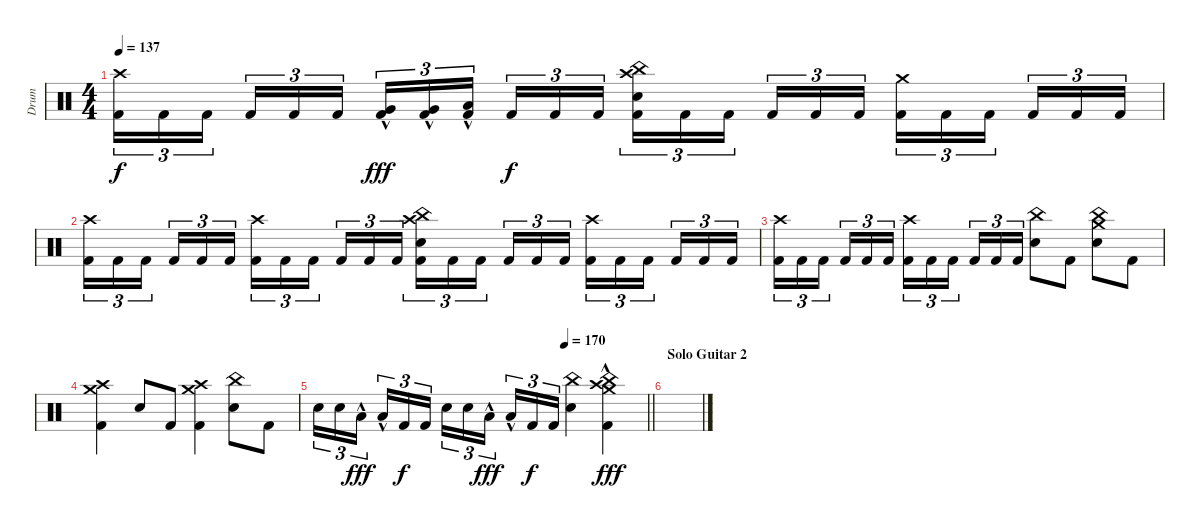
\track ("Drum" "Drum") {instrument percussion}
\staff {score}
\articulation defaults
\ts (4 4)
\tempo 137
\clef neutral
\ks c
("Crash high (hit)" "Kick (hit) 2").16{tu (3 2) dy f} "Kick (hit) 2".16{tu (3 2)} "Kick (hit) 2".16{tu (3 2) beam splitsecondary} "Kick (hit) 2".16{tu (3 2)} "Kick (hit) 2".16{tu (3 2)} "Kick (hit) 2".16{tu (3 2)} ("Very Low Tom (hit)"{hac} "Kick (hit) 2").16{tu (3 2) dy fff} ("Very Low Tom (hit)"{hac} "Kick (hit) 2").16{tu (3 2)} ("Low Floor Tom (hit)"{hac} "Kick (hit) 2").16{tu (3 2) beam splitsecondary} "Kick (hit) 2".16{tu (3 2) dy f} "Kick (hit) 2".16{tu (3 2)} "Kick (hit) 2".16{tu (3 2)} ("China (hit)" "Crash high (hit)" "Electric Snare (hit)" "Kick (hit) 2").16{tu (3 2)} "Kick (hit) 2".16{tu (3 2)} "Kick (hit) 2".16{tu (3 2) beam splitsecondary} "Kick (hit) 2".16{tu (3 2)} "Kick (hit) 2".16{tu (3 2)} "Kick (hit) 2".16{tu (3 2)} ("Crash medium (hit)" "Kick (hit) 2").16{tu (3 2)} "Kick (hit) 2".16{tu (3 2)} "Kick (hit) 2".16{tu (3 2) beam splitsecondary} "Kick (hit) 2".16{tu (3 2)} "Kick (hit) 2".16{tu (3 2)} "Kick (hit) 2".16{tu (3 2)} |
("Crash high (hit)" "Kick (hit) 2").16{tu (3 2)} "Kick (hit) 2".16{tu (3 2)} "Kick (hit) 2".16{tu (3 2) beam splitsecondary} "Kick (hit) 2".16{tu (3 2)} "Kick (hit) 2".16{tu (3 2)} "Kick (hit) 2".16{tu (3 2)} ("Crash high (hit)" "Kick (hit) 2").16{tu (3 2)} "Kick (hit) 2".16{tu (3 2)} "Kick (hit) 2".16{tu (3 2) beam splitsecondary} "Kick (hit) 2".16{tu (3 2)} "Kick (hit) 2".16{tu (3 2)} "Kick (hit) 2".16{tu (3 2)} ("China (hit)" "Crash high (hit)" "Electric Snare (hit)" "Kick (hit) 2").16{tu (3 2)} "Kick (hit) 2".16{tu (3 2)} "Kick (hit) 2".16{tu (3 2) beam splitsecondary} "Kick (hit) 2".16{tu (3 2)} "Kick (hit) 2".16{tu (3 2)} "Kick (hit) 2".16{tu (3 2)} ("Crash high (hit)" "Kick (hit) 2").16{tu (3 2)} "Kick (hit) 2".16{tu (3 2)} "Kick (hit) 2".16{tu (3 2) beam splitsecondary} "Kick (hit) 2".16{tu (3 2)} "Kick (hit) 2".16{tu (3 2)} "Kick (hit) 2".16{tu (3 2)} |
("Crash high (hit)" "Kick (hit) 2").16{tu (3 2)} "Kick (hit) 2".16{tu (3 2)} "Kick (hit) 2".16{tu (3 2) beam splitsecondary} "Kick (hit) 2".16{tu (3 2)} "Kick (hit) 2".16{tu (3 2)} "Kick (hit) 2".16{tu (3 2)} ("Crash high (hit)" "Kick (hit) 2").16{tu (3 2)} "Kick (hit) 2".16{tu (3 2)} "Kick (hit) 2".16{tu (3 2) beam splitsecondary} "Kick (hit) 2".16{tu (3 2)} "Kick (hit) 2".16{tu (3 2)} "Kick (hit) 2".16{tu (3 2)} ("China (hit)" "Electric Snare (hit)").8 "Kick (hit) 2".8 ("Crash medium (hit)" "China (hit)" "Electric Snare (hit)").8 "Kick (hit) 2".8 |
("Crash medium (hit)" "Crash high (hit)" "Kick (hit) 2").4 "Electric Snare (hit)".8 "Kick (hit) 2".8 ("Crash medium (hit)" "Crash high (hit)" "Kick (hit) 2").4 ("China (hit)" "Electric Snare (hit)").8 "Kick (hit) 2".8 |
\tempo (170 0.75)
\barLineRight lightlight "Electric Snare (hit)".16{tu (3 2)} "Electric Snare (hit)".16{tu (3 2)} "Low Tom (hit)"{hac}.16{tu (3 2) dy fff beam splitsecondary} "Low Tom (hit)"{hac}.16{tu (3 2)} "Kick (hit) 2".16{tu (3 2) dy f} "Kick (hit) 2".16{tu (3 2)} "Electric Snare (hit)".16{tu (3 2)} "Electric Snare (hit)".16{tu (3 2)} "Low Tom (hit)"{hac}.16{tu (3 2) dy fff beam splitsecondary} "Low Tom (hit)"{hac}.16{tu (3 2)} "Kick (hit) 2".16{tu (3 2) dy f} "Kick (hit) 2".16{tu (3 2)}
("China (hit)" "Electric Snare (hit)").4 ("China (hit)"{hac} "Crash high (hit)"{hac} "Crash medium (hit)"{hac} "Kick (hit) 2").4{dy fff} |
\section ("" "Solo Guitar 2")
